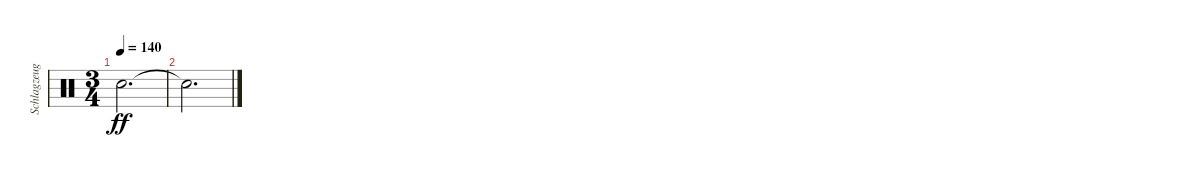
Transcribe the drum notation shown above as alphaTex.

\track ("Schlagzeug" "Schlagzeug") {instrument percussion}
\staff {score}
\articulation defaults
\ts (3 4)
\tempo 140
\clef neutral
\ks c "Snare (hit)"{t}.2{d dy ff}
|
"Snare (hit)"{t}.2{d}
